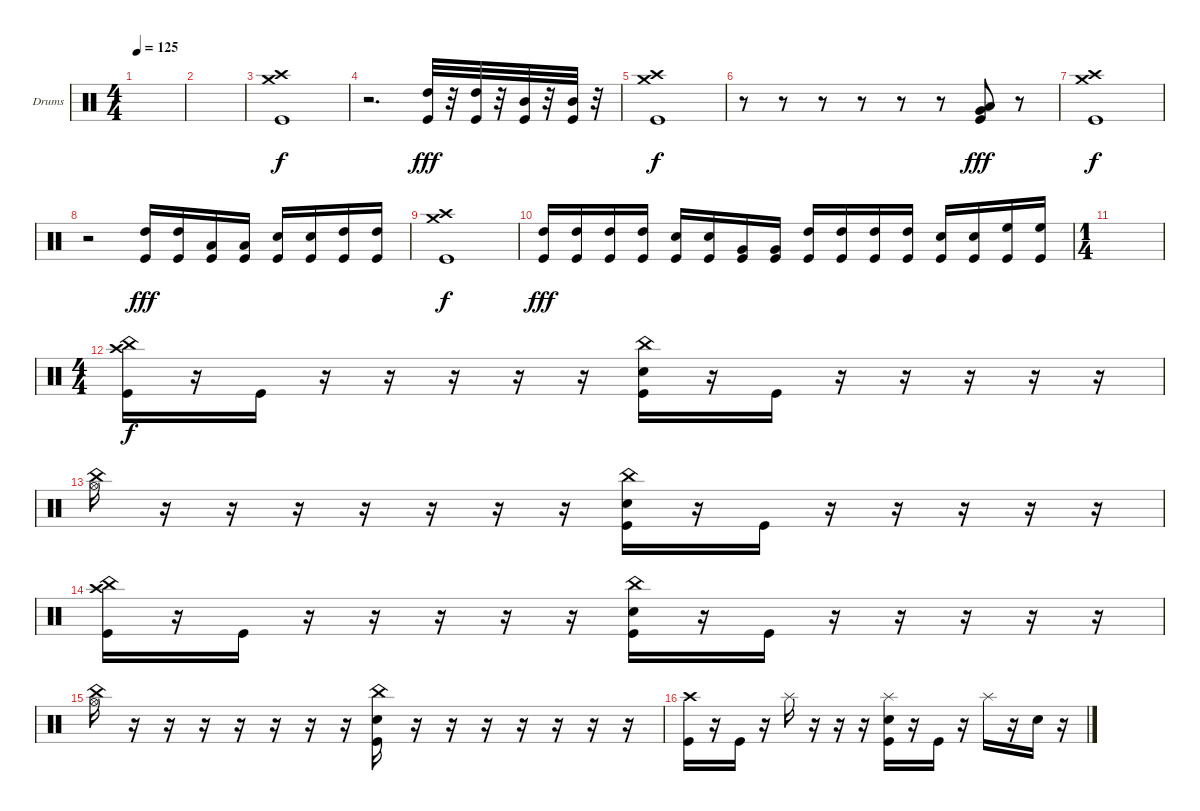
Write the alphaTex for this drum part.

\defaultSystemsLayout 4
\bracketExtendMode groupsimilarinstruments
\firstSystemTrackNameOrientation horizontal
\otherSystemsTrackNameOrientation horizontal
\track ("Drumkit" "Drums") {instrument percussion}
\staff {score}
\articulation defaults
\ts (4 4)
\tempo 125
\clef neutral
\scale
0.472222
\ks c
|
\scale
0.263889 |
\scale
0.263889 ("Kick (hit)" "Crash high (hit)" "Crash medium (hit)").1 |
\scale
0.333333 r.2{d} ("Kick (hit)" "High Tom (hit)").32{dy fff} r.32 ("Kick (hit)" "High Tom (hit)").32 r.32 ("Kick (hit)" "Mid Tom (hit)").32 r.32 ("Kick (hit)" "Mid Tom (hit)").32 r.32 |
\scale
0.333333 ("Kick (hit)" "Crash high (hit)" "Crash medium (hit)").1{dy f} |
\scale
0.333333 r.8 r.8 r.8 r.8 r.8 r.8 ("Kick (hit)" "Very Low Tom (hit)" "Low Tom (hit)").8{dy fff} r.8 |
\scale
0.333333 ("Kick (hit)" "Crash high (hit)" "Crash medium (hit)").1{dy f} |
\scale
0.333333 r.2 ("Kick (hit)" "High Tom (hit)").16{dy fff} ("Kick (hit)" "High Tom (hit)").16 ("Kick (hit)" "Low Tom (hit)").16 ("Kick (hit)" "Low Tom (hit)").16 ("Kick (hit)" "Snare (hit) 2").16 ("Kick (hit)" "Snare (hit) 2").16 ("Kick (hit)" "High Tom (hit)").16 ("Kick (hit)" "High Tom (hit)").16 |
\scale
0.333333 ("Kick (hit)" "Crash high (hit)" "Crash medium (hit)").1{dy f} |
\scale
0.218391 ("High Tom (hit)" "Kick (hit)").16{dy fff} ("High Tom (hit)" "Kick (hit)").16 ("High Tom (hit)" "Kick (hit)").16 ("High Tom (hit)" "Kick (hit)").16 ("Snare (hit) 2" "Kick (hit)").16 ("Snare (hit) 2" "Kick (hit)").16 ("Very Low Tom (hit)" "Kick (hit)").16 ("Very Low Tom (hit)" "Kick (hit)").16 ("High Tom (hit)" "Kick (hit)").16 ("High Tom (hit)" "Kick (hit)").16 ("High Tom (hit)" "Kick (hit)").16 ("High Tom (hit)" "Kick (hit)").16 ("Kick (hit)" "Snare (hit) 2").16 ("Kick (hit)" "Snare (hit) 2").16 ("High Floor Tom (hit)" "Kick (hit)").16 ("High Floor Tom (hit)" "Kick (hit)").16 |
\ts (1 4)
\scale
0.390805 |
\ts (4 4)
\scale
0.390805 ("Kick (hit)" "China (hit)" "Crash high (hit)").16{dy f} r.16 "Kick (hit)".16 r.16 r.16 r.16 r.16 r.16 ("China (hit)" "Kick (hit)" "Snare (hit) 2").16 r.16 "Kick (hit)".16 r.16 r.16 r.16 r.16 r.16 |
\scale
0.333333 ("China (hit)" "Hi-Hat (open)").16 r.16 r.16 r.16 r.16 r.16 r.16 r.16 ("China (hit)" "Kick (hit)" "Snare (hit) 2").16 r.16 "Kick (hit)".16 r.16 r.16 r.16 r.16 r.16 |
\scale
0.333333 ("Kick (hit)" "China (hit)" "Crash high (hit)").16 r.16 "Kick (hit)".16 r.16 r.16 r.16 r.16 r.16 ("China (hit)" "Kick (hit)" "Snare (hit) 2").16 r.16 "Kick (hit)".16 r.16 r.16 r.16 r.16 r.16 |
\scale
0.333333 ("China (hit)" "Hi-Hat (open)").16 r.16 r.16 r.16 r.16 r.16 r.16 r.16 ("China (hit)" "Kick (hit)" "Snare (hit) 2").16 r.16 r.16 r.16 r.16 r.16 r.16 r.16 |
\scale
0.333333 ("Kick (hit)" "Crash high (hit)").16 r.16 "Kick (hit)".16 r.16 "Splash (hit)".16 r.16 r.16 r.16 ("Kick (hit)" "Snare (hit) 2" "Splash (hit)").16 r.16 "Kick (hit)".16 r.16 "Splash (hit)".16 r.16 "Snare (hit) 2".16 r.16
